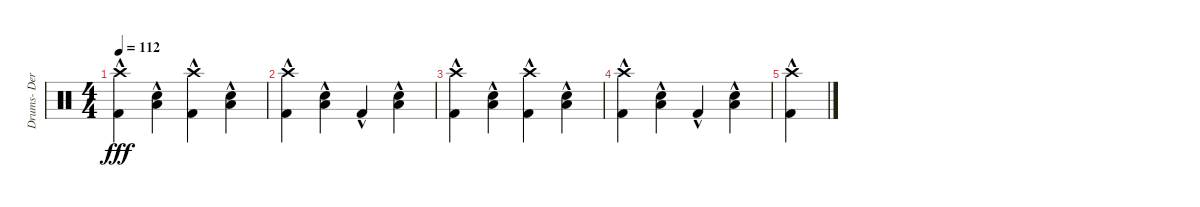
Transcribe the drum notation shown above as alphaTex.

\track ("Drums- Derek Grant" "Drums- Der") {instrument percussion}
\staff {score}
\articulation defaults
\ts (4 4)
\tempo 112
\clef neutral
\ks c
("Crash high (hit)" "Kick (hit) 2"{hac}).4{dy fff} ("Low Tom (hit)"{hac} "Snare (hit) 2"{hac}).4 ("Crash high (hit)" "Kick (hit) 2"{hac}).4 ("Low Tom (hit)"{hac} "Snare (hit) 2"{hac}).4 |
("Crash high (hit)" "Kick (hit) 2"{hac}).4 ("Low Tom (hit)"{hac} "Snare (hit) 2"{hac}).4 "Kick (hit) 2"{hac}.4 ("Low Tom (hit)"{hac} "Snare (hit) 2"{hac}).4 |
("Crash high (hit)" "Kick (hit) 2"{hac}).4 ("Low Tom (hit)"{hac} "Snare (hit) 2"{hac}).4 ("Crash high (hit)" "Kick (hit) 2"{hac}).4 ("Low Tom (hit)"{hac} "Snare (hit) 2"{hac}).4 |
("Crash high (hit)" "Kick (hit) 2"{hac}).4 ("Low Tom (hit)"{hac} "Snare (hit) 2"{hac}).4 "Kick (hit) 2"{hac}.4 ("Low Tom (hit)"{hac} "Snare (hit) 2"{hac}).4 |
("Crash high (hit)"{hac} "Kick (hit) 2"{hac}).4
